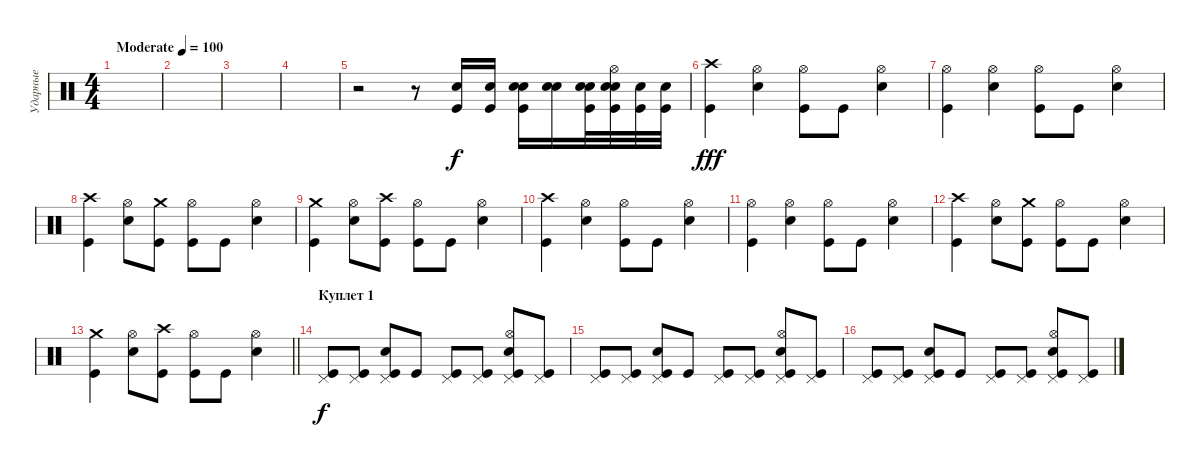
\track ("Ударные" "Ударные") {instrument percussion}
\staff {score}
\articulation defaults
\ts (4 4)
\tempo (100 "Moderate")
\clef neutral
\ks c
|
|
|
|
r.2 r.8 ("Kick (hit)" "Snare (hit) 2").16 ("Kick (hit)" "Snare (hit) 2").16 ("Kick (hit)" "Snare (hit) 2" "Snare (hit) 2").16 ("Snare (hit) 2" "Snare (hit) 2").16 ("Kick (hit)" "Snare (hit) 2" "Snare (hit) 2").32 ("Snare (hit) 2" "Kick (hit)" "Hi-Hat (open)" "Snare (hit) 2").32 ("Snare (hit) 2" "Kick (hit)").32 ("Kick (hit)" "Snare (hit) 2").32 |
("Crash high (hit)" "Kick (hit)").4{dy fff} ("Hi-Hat (open)" "Electric Snare (hit)").4 ("Hi-Hat (open)" "Kick (hit)").8 "Kick (hit)".8 ("Hi-Hat (open)" "Electric Snare (hit)").4 |
("Hi-Hat (open)" "Kick (hit)").4 ("Hi-Hat (open)" "Electric Snare (hit)").4 ("Hi-Hat (open)" "Kick (hit)").8 "Kick (hit)".8 ("Hi-Hat (open)" "Electric Snare (hit)").4 |
("Crash high (hit)" "Kick (hit)").4 ("Hi-Hat (open)" "Electric Snare (hit)").8 ("Crash medium (hit)" "Kick (hit)").8 ("Hi-Hat (open)" "Kick (hit)").8 "Kick (hit)".8 ("Hi-Hat (open)" "Electric Snare (hit)").4 |
("Crash medium (hit)" "Kick (hit)").4 ("Hi-Hat (open)" "Electric Snare (hit)").8 ("Crash high (hit)" "Kick (hit)").8 ("Hi-Hat (open)" "Kick (hit)").8 "Kick (hit)".8 ("Hi-Hat (open)" "Electric Snare (hit)").4 |
("Crash high (hit)" "Kick (hit)").4 ("Hi-Hat (open)" "Electric Snare (hit)").4 ("Hi-Hat (open)" "Kick (hit)").8 "Kick (hit)".8 ("Hi-Hat (open)" "Electric Snare (hit)").4 |
("Hi-Hat (open)" "Kick (hit)").4 ("Hi-Hat (open)" "Electric Snare (hit)").4 ("Hi-Hat (open)" "Kick (hit)").8 "Kick (hit)".8 ("Hi-Hat (open)" "Electric Snare (hit)").4 |
("Crash high (hit)" "Kick (hit)").4 ("Hi-Hat (open)" "Electric Snare (hit)").8 ("Crash medium (hit)" "Kick (hit)").8 ("Hi-Hat (open)" "Kick (hit)").8 "Kick (hit)".8 ("Hi-Hat (open)" "Electric Snare (hit)").4 |
\barLineRight lightlight
("Crash medium (hit)" "Kick (hit)").4 ("Hi-Hat (open)" "Electric Snare (hit)").8 ("Crash high (hit)" "Kick (hit)").8 ("Hi-Hat (open)" "Kick (hit)").8 "Kick (hit)".8 ("Hi-Hat (open)" "Electric Snare (hit)").4 |
\section ("" "Куплет 1")
("Kick (hit)" "Pedal Hi-Hat (hit)").8{dy f} ("Pedal Hi-Hat (hit)" "Kick (hit)").8 ("Snare (hit) 2" "Kick (hit)" "Pedal Hi-Hat (hit)").8 "Kick (hit)".8 ("Kick (hit)" "Pedal Hi-Hat (hit)").8 ("Pedal Hi-Hat (hit)" "Kick (hit)").8 ("Kick (hit)" "Pedal Hi-Hat (hit)" "Snare (hit) 2" "Hi-Hat (open)").8 ("Kick (hit)" "Pedal Hi-Hat (hit)").8 |
("Kick (hit)" "Pedal Hi-Hat (hit)").8 ("Pedal Hi-Hat (hit)" "Kick (hit)").8 ("Snare (hit) 2" "Kick (hit)" "Pedal Hi-Hat (hit)").8 "Kick (hit)".8 ("Kick (hit)" "Pedal Hi-Hat (hit)").8 ("Pedal Hi-Hat (hit)" "Kick (hit)").8 ("Kick (hit)" "Pedal Hi-Hat (hit)" "Snare (hit) 2" "Hi-Hat (open)").8 ("Kick (hit)" "Pedal Hi-Hat (hit)").8 |
("Kick (hit)" "Pedal Hi-Hat (hit)").8 ("Pedal Hi-Hat (hit)" "Kick (hit)").8 ("Snare (hit) 2" "Kick (hit)" "Pedal Hi-Hat (hit)").8 "Kick (hit)".8 ("Kick (hit)" "Pedal Hi-Hat (hit)").8 ("Pedal Hi-Hat (hit)" "Kick (hit)").8 ("Kick (hit)" "Pedal Hi-Hat (hit)" "Snare (hit) 2" "Hi-Hat (open)").8 ("Kick (hit)" "Pedal Hi-Hat (hit)").8
